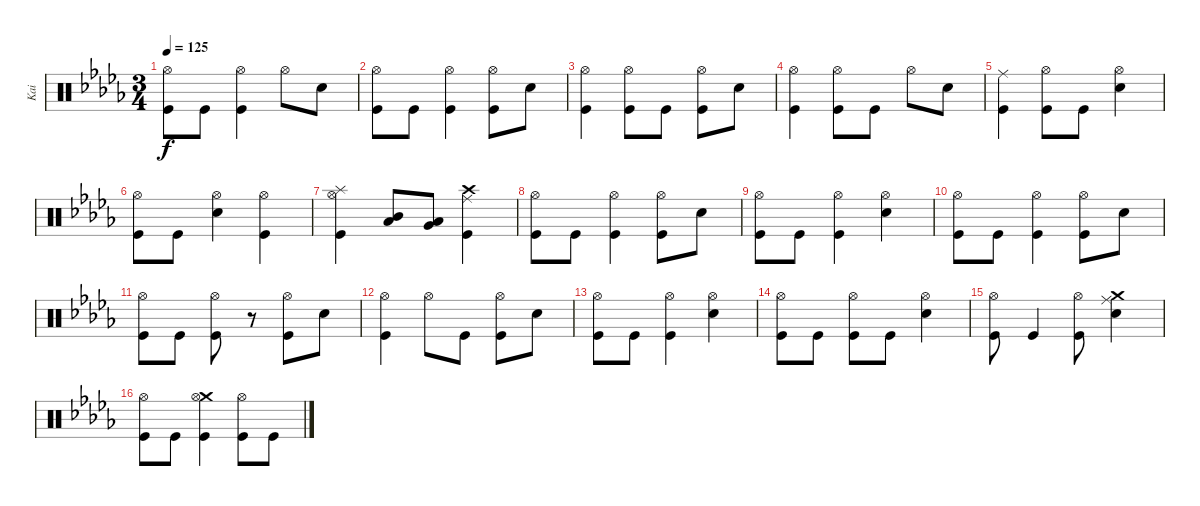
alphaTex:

\track ("Kai" "Kai") {instrument percussion}
\staff {score}
\articulation defaults
\ts (3 4)
\tempo 125
\clef neutral
\ks bbminor
("Kick (hit)" "Hi-Hat (open)").8{dy f} "Kick (hit)".8 ("Kick (hit)" "Hi-Hat (open)").4 "Hi-Hat (open)".8 "Snare (hit) 2".8 |
("Kick (hit)" "Hi-Hat (open)").8 "Kick (hit)".8 ("Kick (hit)" "Hi-Hat (open)").4 ("Kick (hit)" "Hi-Hat (open)").8 "Snare (hit) 2".8 |
("Kick (hit)" "Hi-Hat (open)").4 ("Kick (hit)" "Hi-Hat (open)").8 "Kick (hit)".8 ("Kick (hit)" "Hi-Hat (open)").8 "Snare (hit) 2".8 |
("Kick (hit)" "Hi-Hat (open)").4 ("Kick (hit)" "Hi-Hat (open)").8 "Kick (hit)".8 "Hi-Hat (open)".8 "Snare (hit) 2".8 |
("Kick (hit)" "Ride (middle)").4 ("Kick (hit)" "Hi-Hat (open)").8 "Kick (hit)".8 ("Snare (hit) 2" "Hi-Hat (open)").4 |
("Kick (hit)" "Hi-Hat (open)").8 "Kick (hit)".8 ("Snare (hit) 2" "Hi-Hat (open)").4 ("Kick (hit)" "Hi-Hat (open)").4 |
("Splash (hit)" "Kick (hit)" "Hi-Hat (open)").4 ("Low Tom (hit)" "Mid Tom (hit)").8 ("Low Tom (hit)" "Very Low Tom (hit)").8 ("Crash high (hit)" "Ride (middle)" "Kick (hit)").4 |
("Kick (hit)" "Hi-Hat (open)").8 "Kick (hit)".8 ("Kick (hit)" "Hi-Hat (open)").4 ("Kick (hit)" "Hi-Hat (open)").8 "Snare (hit) 2".8 |
("Kick (hit)" "Hi-Hat (open)").8 "Kick (hit)".8 ("Kick (hit)" "Hi-Hat (open)").4 ("Hi-Hat (open)" "Snare (hit) 2").4 |
("Kick (hit)" "Hi-Hat (open)").8 "Kick (hit)".8 ("Kick (hit)" "Hi-Hat (open)").4 ("Kick (hit)" "Hi-Hat (open)").8 "Snare (hit) 2".8 |
("Kick (hit)" "Hi-Hat (open)").8 "Kick (hit)".8 ("Kick (hit)" "Hi-Hat (open)").8 r.8 ("Kick (hit)" "Hi-Hat (open)").8 "Snare (hit) 2".8 |
("Kick (hit)" "Hi-Hat (open)").4 "Hi-Hat (open)".8 "Kick (hit)".8 ("Kick (hit)" "Hi-Hat (open)").8 "Snare (hit) 2".8 |
("Kick (hit)" "Hi-Hat (open)").8 "Kick (hit)".8 ("Kick (hit)" "Hi-Hat (open)").4 ("Hi-Hat (open)" "Snare (hit) 2").4 |
("Kick (hit)" "Hi-Hat (open)").8 "Kick (hit)".8 ("Kick (hit)" "Hi-Hat (open)").8 "Kick (hit)".8 ("Snare (hit) 2" "Hi-Hat (open)").4 |
("Kick (hit)" "Hi-Hat (open)").8 "Kick (hit)".4 ("Kick (hit)" "Hi-Hat (open)").8 ("Crash medium (hit)" "Snare (hit) 2" "Ride (middle)").4 |
("Kick (hit)" "Hi-Hat (open)").8 "Kick (hit)".8 ("Crash medium (hit)" "Kick (hit)" "Hi-Hat (open)").4 ("Kick (hit)" "Hi-Hat (open)").8 "Kick (hit)".8
